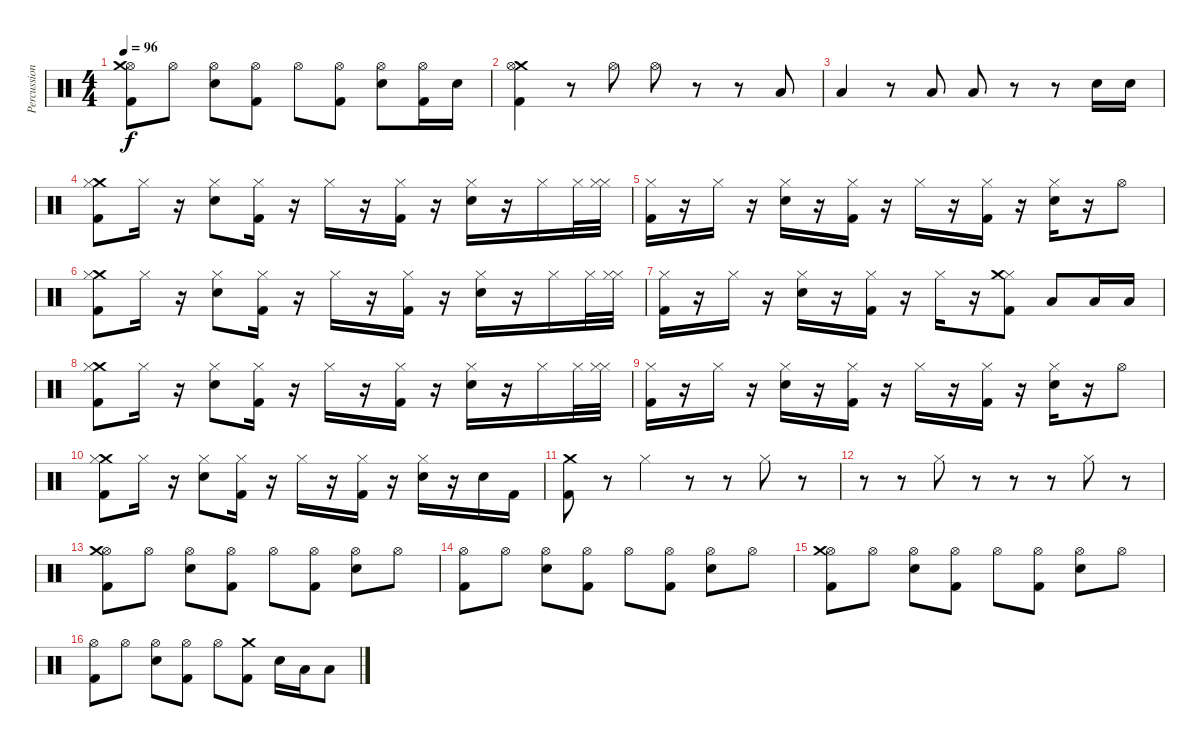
\track ("Percussions" "Percussion") {instrument percussion}
\staff {score}
\articulation defaults
\ts (4 4)
\tempo 96
\clef neutral
\ks c
("Kick (hit) 2" "Hi-Hat (open)" "Crash medium (hit)").8{dy f} "Hi-Hat (open)".8 ("Snare (hit) 2" "Hi-Hat (open)").8 ("Kick (hit) 2" "Hi-Hat (open)").8 "Hi-Hat (open)".8 ("Kick (hit) 2" "Hi-Hat (open)").8 ("Snare (hit) 2" "Hi-Hat (open)").8 ("Kick (hit) 2" "Hi-Hat (open)").16 "Snare (hit) 2".16 |
("Kick (hit) 2" "Crash medium (hit)" "Hi-Hat (open)").4 r.8 "Hi-Hat (open)".8 "Hi-Hat (open)".8 r.8 r.8 "Low Tom (hit)".8 |
"Low Tom (hit)".4 r.8 "Low Floor Tom (hit)".8 "Low Floor Tom (hit)".8 r.8 r.8 "Snare (hit) 2".16 "Snare (hit) 2".16 |
("Crash medium (hit)" "Kick (hit) 2" "Hi-Hat (closed)").8 "Hi-Hat (closed)".16 r.16 ("Snare (hit) 2" "Hi-Hat (closed)").8 ("Kick (hit) 2" "Hi-Hat (closed)").16 r.16 "Hi-Hat (closed)".16 r.16 ("Kick (hit) 2" "Hi-Hat (closed)").16 r.16 ("Snare (hit) 2" "Hi-Hat (closed)").16 r.16 "Hi-Hat (closed)".16 "Hi-Hat (closed)".32 ("Hi-Hat (closed)" "Hi-Hat (closed)").32 |
("Hi-Hat (closed)" "Kick (hit) 2").16 r.16 "Hi-Hat (closed)".16 r.16 ("Hi-Hat (closed)" "Snare (hit) 2").16 r.16 ("Hi-Hat (closed)" "Kick (hit) 2").16 r.16 "Hi-Hat (closed)".16 r.16 ("Hi-Hat (closed)" "Kick (hit) 2").16 r.16 ("Hi-Hat (closed)" "Snare (hit) 2").16 r.16 "Hi-Hat (open)".8 |
("Crash medium (hit)" "Kick (hit) 2" "Hi-Hat (closed)").8 "Hi-Hat (closed)".16 r.16 ("Snare (hit) 2" "Hi-Hat (closed)").8 ("Kick (hit) 2" "Hi-Hat (closed)").16 r.16 "Hi-Hat (closed)".16 r.16 ("Kick (hit) 2" "Hi-Hat (closed)").16 r.16 ("Snare (hit) 2" "Hi-Hat (closed)").16 r.16 "Hi-Hat (closed)".16 "Hi-Hat (closed)".32 ("Hi-Hat (closed)" "Hi-Hat (closed)").32 |
("Hi-Hat (closed)" "Kick (hit) 2").16 r.16 "Hi-Hat (closed)".16 r.16 ("Hi-Hat (closed)" "Snare (hit) 2").16 r.16 ("Hi-Hat (closed)" "Kick (hit) 2").16 r.16 "Hi-Hat (closed)".16 r.16 ("Hi-Hat (closed)" "Kick (hit) 2" "Crash medium (hit)").8 "Low Tom (hit)".8 "Low Tom (hit)".16 "Low Floor Tom (hit)".16 |
("Crash medium (hit)" "Kick (hit) 2" "Hi-Hat (closed)").8 "Hi-Hat (closed)".16 r.16 ("Snare (hit) 2" "Hi-Hat (closed)").8 ("Kick (hit) 2" "Hi-Hat (closed)").16 r.16 "Hi-Hat (closed)".16 r.16 ("Kick (hit) 2" "Hi-Hat (closed)").16 r.16 ("Snare (hit) 2" "Hi-Hat (closed)").16 r.16 "Hi-Hat (closed)".16 "Hi-Hat (closed)".32 ("Hi-Hat (closed)" "Hi-Hat (closed)").32 |
("Hi-Hat (closed)" "Kick (hit) 2").16 r.16 "Hi-Hat (closed)".16 r.16 ("Hi-Hat (closed)" "Snare (hit) 2").16 r.16 ("Hi-Hat (closed)" "Kick (hit) 2").16 r.16 "Hi-Hat (closed)".16 r.16 ("Hi-Hat (closed)" "Kick (hit) 2").16 r.16 ("Hi-Hat (closed)" "Snare (hit) 2").16 r.16 "Hi-Hat (open)".8 |
("Crash medium (hit)" "Kick (hit) 2" "Hi-Hat (closed)").8 "Hi-Hat (closed)".16 r.16 ("Snare (hit) 2" "Hi-Hat (closed)").8 ("Kick (hit) 2" "Hi-Hat (closed)").16 r.16 "Hi-Hat (closed)".16 r.16 ("Kick (hit) 2" "Hi-Hat (closed)").16 r.16 ("Snare (hit) 2" "Hi-Hat (closed)").16 r.16 "Snare (hit) 2".16 "Kick (hit) 2".16 |
("Crash medium (hit)" "Kick (hit) 2").8 r.8 "Hi-Hat (closed)".4 r.8 r.8 "Hi-Hat (closed)".8 r.8 |
r.8 r.8 "Hi-Hat (closed)".8 r.8 r.8 r.8 "Hi-Hat (closed)".8 r.8 |
("Kick (hit) 2" "Hi-Hat (open)" "Crash medium (hit)").8 "Hi-Hat (open)".8 ("Snare (hit) 2" "Hi-Hat (open)").8 ("Kick (hit) 2" "Hi-Hat (open)").8 "Hi-Hat (open)".8 ("Kick (hit) 2" "Hi-Hat (open)").8 ("Snare (hit) 2" "Hi-Hat (open)").8 "Hi-Hat (open)".8 |
("Kick (hit) 2" "Hi-Hat (open)").8 "Hi-Hat (open)".8 ("Snare (hit) 2" "Hi-Hat (open)").8 ("Kick (hit) 2" "Hi-Hat (open)").8 "Hi-Hat (open)".8 ("Kick (hit) 2" "Hi-Hat (open)").8 ("Snare (hit) 2" "Hi-Hat (open)").8 "Hi-Hat (open)".8 |
("Kick (hit) 2" "Hi-Hat (open)" "Crash medium (hit)").8 "Hi-Hat (open)".8 ("Snare (hit) 2" "Hi-Hat (open)").8 ("Kick (hit) 2" "Hi-Hat (open)").8 "Hi-Hat (open)".8 ("Kick (hit) 2" "Hi-Hat (open)").8 ("Snare (hit) 2" "Hi-Hat (open)").8 "Hi-Hat (open)".8 |
("Kick (hit) 2" "Hi-Hat (open)").8 "Hi-Hat (open)".8 ("Snare (hit) 2" "Hi-Hat (open)").8 ("Kick (hit) 2" "Hi-Hat (open)").8 "Hi-Hat (open)".8 ("Kick (hit) 2" "Crash medium (hit)").8 "Snare (hit) 2".16 "Low Tom (hit)".16 "Low Floor Tom (hit)".8
